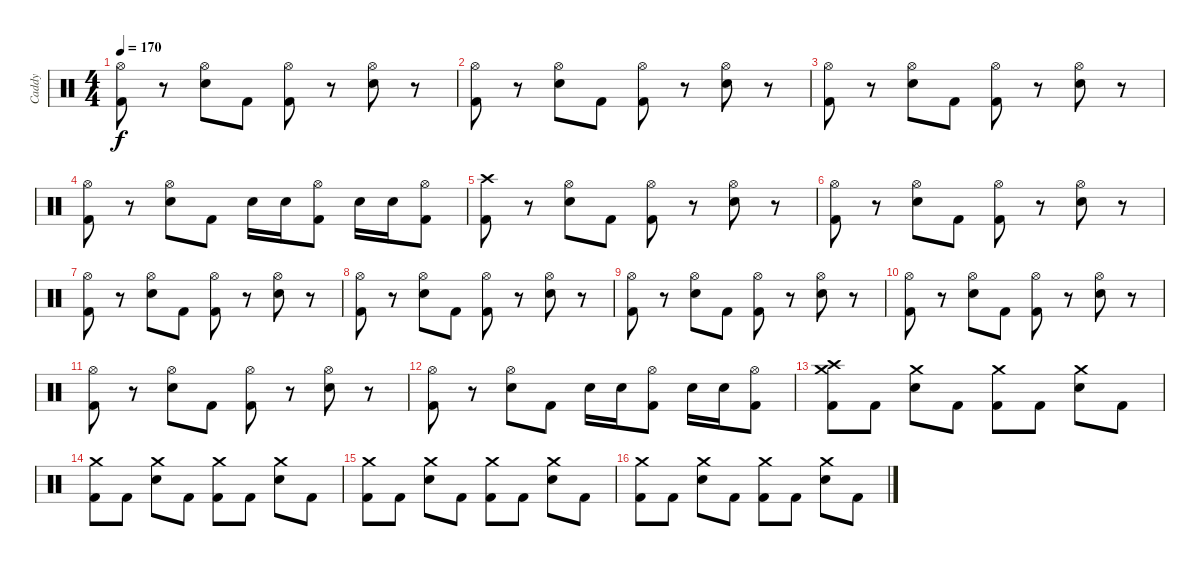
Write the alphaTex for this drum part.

\track ("Caddy" "Caddy") {instrument percussion}
\staff {score}
\articulation defaults
\ts (4 4)
\tempo 170
\clef neutral
\ks c
("Hi-Hat (open)" "Kick (hit) 2").8{dy f} r.8 ("Hi-Hat (open)" "Electric Snare (hit)").8 "Kick (hit) 2".8 ("Hi-Hat (open)" "Kick (hit) 2").8 r.8 ("Hi-Hat (open)" "Electric Snare (hit)").8 r.8 |
("Hi-Hat (open)" "Kick (hit) 2").8 r.8 ("Hi-Hat (open)" "Electric Snare (hit)").8 "Kick (hit) 2".8 ("Hi-Hat (open)" "Kick (hit) 2").8 r.8 ("Hi-Hat (open)" "Electric Snare (hit)").8 r.8 |
("Hi-Hat (open)" "Kick (hit) 2").8 r.8 ("Hi-Hat (open)" "Electric Snare (hit)").8 "Kick (hit) 2".8 ("Hi-Hat (open)" "Kick (hit) 2").8 r.8 ("Hi-Hat (open)" "Electric Snare (hit)").8 r.8 |
("Hi-Hat (open)" "Kick (hit) 2").8 r.8 ("Hi-Hat (open)" "Electric Snare (hit)").8 "Kick (hit) 2".8 "Electric Snare (hit)".16 "Electric Snare (hit)".16 ("Hi-Hat (open)" "Kick (hit) 2").8 "Electric Snare (hit)".16 "Electric Snare (hit)".16 ("Hi-Hat (open)" "Kick (hit) 2").8 |
("Crash high (hit)" "Kick (hit) 2").8 r.8 ("Hi-Hat (open)" "Electric Snare (hit)").8 "Kick (hit) 2".8 ("Hi-Hat (open)" "Kick (hit) 2").8 r.8 ("Hi-Hat (open)" "Electric Snare (hit)").8 r.8 |
("Hi-Hat (open)" "Kick (hit) 2").8 r.8 ("Hi-Hat (open)" "Electric Snare (hit)").8 "Kick (hit) 2".8 ("Hi-Hat (open)" "Kick (hit) 2").8 r.8 ("Hi-Hat (open)" "Electric Snare (hit)").8 r.8 |
("Hi-Hat (open)" "Kick (hit) 2").8 r.8 ("Hi-Hat (open)" "Electric Snare (hit)").8 "Kick (hit) 2".8 ("Hi-Hat (open)" "Kick (hit) 2").8 r.8 ("Hi-Hat (open)" "Electric Snare (hit)").8 r.8 |
("Hi-Hat (open)" "Kick (hit) 2").8 r.8 ("Hi-Hat (open)" "Electric Snare (hit)").8 "Kick (hit) 2".8 ("Hi-Hat (open)" "Kick (hit) 2").8 r.8 ("Hi-Hat (open)" "Electric Snare (hit)").8 r.8 |
("Hi-Hat (open)" "Kick (hit) 2").8 r.8 ("Hi-Hat (open)" "Electric Snare (hit)").8 "Kick (hit) 2".8 ("Hi-Hat (open)" "Kick (hit) 2").8 r.8 ("Hi-Hat (open)" "Electric Snare (hit)").8 r.8 |
("Hi-Hat (open)" "Kick (hit) 2").8 r.8 ("Hi-Hat (open)" "Electric Snare (hit)").8 "Kick (hit) 2".8 ("Hi-Hat (open)" "Kick (hit) 2").8 r.8 ("Hi-Hat (open)" "Electric Snare (hit)").8 r.8 |
("Hi-Hat (open)" "Kick (hit) 2").8 r.8 ("Hi-Hat (open)" "Electric Snare (hit)").8 "Kick (hit) 2".8 ("Hi-Hat (open)" "Kick (hit) 2").8 r.8 ("Hi-Hat (open)" "Electric Snare (hit)").8 r.8 |
("Hi-Hat (open)" "Kick (hit) 2").8 r.8 ("Hi-Hat (open)" "Electric Snare (hit)").8 "Kick (hit) 2".8 "Electric Snare (hit)".16 "Electric Snare (hit)".16 ("Hi-Hat (open)" "Kick (hit) 2").8 "Electric Snare (hit)".16 "Electric Snare (hit)".16 ("Hi-Hat (open)" "Kick (hit) 2").8 |
("Crash high (hit)" "Crash medium (hit)" "Kick (hit) 2").8 "Kick (hit) 2".8 ("Crash medium (hit)" "Electric Snare (hit)").8 "Kick (hit) 2".8 ("Crash medium (hit)" "Kick (hit) 2").8 "Kick (hit) 2".8 ("Crash medium (hit)" "Electric Snare (hit)").8 "Kick (hit) 2".8 |
("Crash medium (hit)" "Kick (hit) 2").8 "Kick (hit) 2".8 ("Crash medium (hit)" "Electric Snare (hit)").8 "Kick (hit) 2".8 ("Crash medium (hit)" "Kick (hit) 2").8 "Kick (hit) 2".8 ("Crash medium (hit)" "Electric Snare (hit)").8 "Kick (hit) 2".8 |
("Crash medium (hit)" "Kick (hit) 2").8 "Kick (hit) 2".8 ("Crash medium (hit)" "Electric Snare (hit)").8 "Kick (hit) 2".8 ("Crash medium (hit)" "Kick (hit) 2").8 "Kick (hit) 2".8 ("Crash medium (hit)" "Electric Snare (hit)").8 "Kick (hit) 2".8 |
("Crash medium (hit)" "Kick (hit) 2").8 "Kick (hit) 2".8 ("Crash medium (hit)" "Electric Snare (hit)").8 "Kick (hit) 2".8 ("Crash medium (hit)" "Kick (hit) 2").8 "Kick (hit) 2".8 ("Crash medium (hit)" "Electric Snare (hit)").8 "Kick (hit) 2".8
